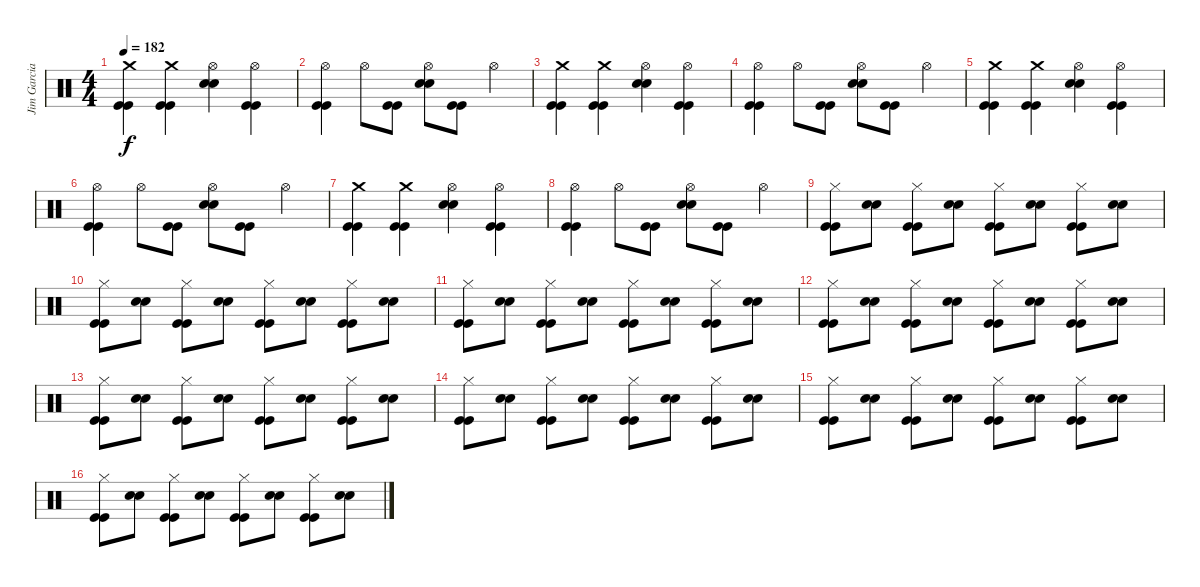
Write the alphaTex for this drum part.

\track ("Jim Garcia" "Jim Garcia") {instrument percussion}
\staff {score}
\articulation defaults
\ts (4 4)
\tempo 182
\clef neutral
\ks c
("Crash medium (hit)" "Kick (hit)" "Kick (hit)").4{dy f} ("Crash medium (hit)" "Kick (hit)" "Kick (hit)").4 ("Snare (hit) 2" "Snare (hit) 2" "Hi-Hat (open)").4 ("Hi-Hat (open)" "Kick (hit)" "Kick (hit)").4 |
("Hi-Hat (open)" "Kick (hit)" "Kick (hit)").4 "Hi-Hat (open)".8 ("Kick (hit)" "Kick (hit)").8 ("Snare (hit) 2" "Snare (hit) 2" "Hi-Hat (open)").8 ("Kick (hit)" "Kick (hit)").8 "Hi-Hat (open)".4 |
("Crash medium (hit)" "Kick (hit)" "Kick (hit)").4 ("Crash medium (hit)" "Kick (hit)" "Kick (hit)").4 ("Snare (hit) 2" "Snare (hit) 2" "Hi-Hat (open)").4 ("Hi-Hat (open)" "Kick (hit)" "Kick (hit)").4 |
("Hi-Hat (open)" "Kick (hit)" "Kick (hit)").4 "Hi-Hat (open)".8 ("Kick (hit)" "Kick (hit)").8 ("Snare (hit) 2" "Snare (hit) 2" "Hi-Hat (open)").8 ("Kick (hit)" "Kick (hit)").8 "Hi-Hat (open)".4 |
("Crash medium (hit)" "Kick (hit)" "Kick (hit)").4 ("Crash medium (hit)" "Kick (hit)" "Kick (hit)").4 ("Snare (hit) 2" "Snare (hit) 2" "Hi-Hat (open)").4 ("Hi-Hat (open)" "Kick (hit)" "Kick (hit)").4 |
("Hi-Hat (open)" "Kick (hit)" "Kick (hit)").4 "Hi-Hat (open)".8 ("Kick (hit)" "Kick (hit)").8 ("Snare (hit) 2" "Snare (hit) 2" "Hi-Hat (open)").8 ("Kick (hit)" "Kick (hit)").8 "Hi-Hat (open)".4 |
("Crash medium (hit)" "Kick (hit)" "Kick (hit)").4 ("Crash medium (hit)" "Kick (hit)" "Kick (hit)").4 ("Snare (hit) 2" "Snare (hit) 2" "Hi-Hat (open)").4 ("Hi-Hat (open)" "Kick (hit)" "Kick (hit)").4 |
("Hi-Hat (open)" "Kick (hit)" "Kick (hit)").4 "Hi-Hat (open)".8 ("Kick (hit)" "Kick (hit)").8 ("Snare (hit) 2" "Snare (hit) 2" "Hi-Hat (open)").8 ("Kick (hit)" "Kick (hit)").8 "Hi-Hat (open)".4 |
("Hi-Hat (closed)" "Kick (hit)" "Kick (hit)").8 ("Snare (hit) 2" "Snare (hit) 2").8 ("Hi-Hat (closed)" "Kick (hit)" "Kick (hit)").8 ("Snare (hit) 2" "Snare (hit) 2").8 ("Hi-Hat (closed)" "Kick (hit)" "Kick (hit)").8 ("Snare (hit) 2" "Snare (hit) 2").8 ("Hi-Hat (closed)" "Kick (hit)" "Kick (hit)").8 ("Snare (hit) 2" "Snare (hit) 2").8 |
("Hi-Hat (closed)" "Kick (hit)" "Kick (hit)").8 ("Snare (hit) 2" "Snare (hit) 2").8 ("Hi-Hat (closed)" "Kick (hit)" "Kick (hit)").8 ("Snare (hit) 2" "Snare (hit) 2").8 ("Hi-Hat (closed)" "Kick (hit)" "Kick (hit)").8 ("Snare (hit) 2" "Snare (hit) 2").8 ("Hi-Hat (closed)" "Kick (hit)" "Kick (hit)").8 ("Snare (hit) 2" "Snare (hit) 2").8 |
("Hi-Hat (closed)" "Kick (hit)" "Kick (hit)").8 ("Snare (hit) 2" "Snare (hit) 2").8 ("Hi-Hat (closed)" "Kick (hit)" "Kick (hit)").8 ("Snare (hit) 2" "Snare (hit) 2").8 ("Hi-Hat (closed)" "Kick (hit)" "Kick (hit)").8 ("Snare (hit) 2" "Snare (hit) 2").8 ("Hi-Hat (closed)" "Kick (hit)" "Kick (hit)").8 ("Snare (hit) 2" "Snare (hit) 2").8 |
("Hi-Hat (closed)" "Kick (hit)" "Kick (hit)").8 ("Snare (hit) 2" "Snare (hit) 2").8 ("Hi-Hat (closed)" "Kick (hit)" "Kick (hit)").8 ("Snare (hit) 2" "Snare (hit) 2").8 ("Hi-Hat (closed)" "Kick (hit)" "Kick (hit)").8 ("Snare (hit) 2" "Snare (hit) 2").8 ("Hi-Hat (closed)" "Kick (hit)" "Kick (hit)").8 ("Snare (hit) 2" "Snare (hit) 2").8 |
("Hi-Hat (closed)" "Kick (hit)" "Kick (hit)").8 ("Snare (hit) 2" "Snare (hit) 2").8 ("Hi-Hat (closed)" "Kick (hit)" "Kick (hit)").8 ("Snare (hit) 2" "Snare (hit) 2").8 ("Hi-Hat (closed)" "Kick (hit)" "Kick (hit)").8 ("Snare (hit) 2" "Snare (hit) 2").8 ("Hi-Hat (closed)" "Kick (hit)" "Kick (hit)").8 ("Snare (hit) 2" "Snare (hit) 2").8 |
("Hi-Hat (closed)" "Kick (hit)" "Kick (hit)").8 ("Snare (hit) 2" "Snare (hit) 2").8 ("Hi-Hat (closed)" "Kick (hit)" "Kick (hit)").8 ("Snare (hit) 2" "Snare (hit) 2").8 ("Hi-Hat (closed)" "Kick (hit)" "Kick (hit)").8 ("Snare (hit) 2" "Snare (hit) 2").8 ("Hi-Hat (closed)" "Kick (hit)" "Kick (hit)").8 ("Snare (hit) 2" "Snare (hit) 2").8 |
("Hi-Hat (closed)" "Kick (hit)" "Kick (hit)").8 ("Snare (hit) 2" "Snare (hit) 2").8 ("Hi-Hat (closed)" "Kick (hit)" "Kick (hit)").8 ("Snare (hit) 2" "Snare (hit) 2").8 ("Hi-Hat (closed)" "Kick (hit)" "Kick (hit)").8 ("Snare (hit) 2" "Snare (hit) 2").8 ("Hi-Hat (closed)" "Kick (hit)" "Kick (hit)").8 ("Snare (hit) 2" "Snare (hit) 2").8 |
("Hi-Hat (closed)" "Kick (hit)" "Kick (hit)").8 ("Snare (hit) 2" "Snare (hit) 2").8 ("Hi-Hat (closed)" "Kick (hit)" "Kick (hit)").8 ("Snare (hit) 2" "Snare (hit) 2").8 ("Hi-Hat (closed)" "Kick (hit)" "Kick (hit)").8 ("Snare (hit) 2" "Snare (hit) 2").8 ("Hi-Hat (closed)" "Kick (hit)" "Kick (hit)").8 ("Snare (hit) 2" "Snare (hit) 2").8
